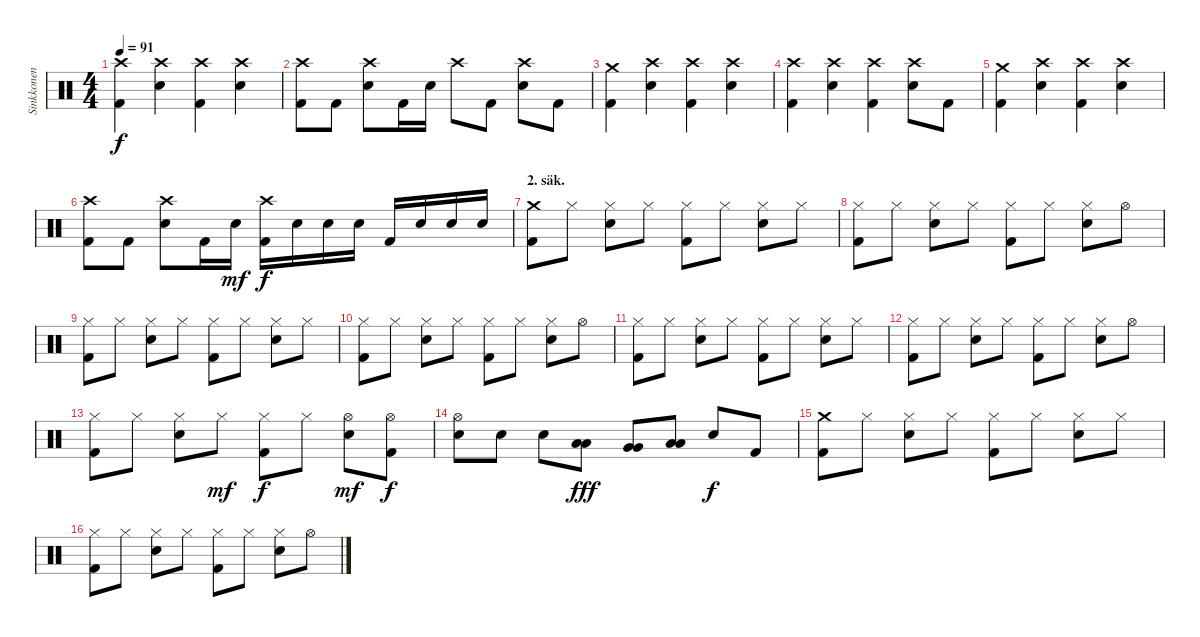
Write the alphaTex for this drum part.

\track ("Sinkkonen" "Sinkkonen") {instrument percussion}
\staff {score}
\articulation defaults
\ts (4 4)
\tempo 91
\clef neutral
\ks c
("Kick (hit) 2" "Crash high (hit)").4{dy f} ("Crash high (hit)" "Snare (hit) 2").4 ("Kick (hit) 2" "Crash high (hit)").4 ("Crash high (hit)" "Snare (hit) 2").4 |
("Kick (hit) 2" "Crash high (hit)").8 "Kick (hit) 2".8 ("Crash high (hit)" "Snare (hit) 2").8 "Kick (hit) 2".16 "Snare (hit) 2".16 "Crash high (hit)".8 "Kick (hit) 2".8 ("Crash high (hit)" "Snare (hit) 2").8 "Kick (hit) 2".8 |
("Kick (hit) 2" "Crash medium (hit)").4 ("Crash high (hit)" "Snare (hit) 2").4 ("Kick (hit) 2" "Crash high (hit)").4 ("Crash high (hit)" "Snare (hit) 2").4 |
("Kick (hit) 2" "Crash high (hit)").4 ("Crash high (hit)" "Snare (hit) 2").4 ("Kick (hit) 2" "Crash high (hit)").4 ("Crash high (hit)" "Snare (hit) 2").8 "Kick (hit) 2".8 |
("Kick (hit) 2" "Crash medium (hit)").4 ("Crash high (hit)" "Snare (hit) 2").4 ("Kick (hit) 2" "Crash high (hit)").4 ("Crash high (hit)" "Snare (hit) 2").4 |
("Kick (hit) 2" "Crash high (hit)").8 "Kick (hit) 2".8 ("Crash high (hit)" "Snare (hit) 2").8 "Kick (hit) 2".16 "Snare (hit) 2".16{dy mf} ("Kick (hit) 2" "Crash high (hit)").16{dy f} "Snare (hit) 2".16 "Snare (hit) 2".16 "Snare (hit) 2".16 "Kick (hit) 2".16 "Snare (hit) 2".16 "Snare (hit) 2".16 "Snare (hit) 2".16 |
\section ("" "2. säk.")
("Kick (hit) 2" "Crash medium (hit)").8 "Hi-Hat (closed)".8 ("Hi-Hat (closed)" "Snare (hit) 2").8 "Hi-Hat (closed)".8 ("Kick (hit) 2" "Hi-Hat (closed)").8 "Hi-Hat (closed)".8 ("Hi-Hat (closed)" "Snare (hit) 2").8 "Hi-Hat (closed)".8 |
("Kick (hit) 2" "Hi-Hat (closed)").8 "Hi-Hat (closed)".8 ("Hi-Hat (closed)" "Snare (hit) 2").8 "Hi-Hat (closed)".8 ("Kick (hit) 2" "Hi-Hat (closed)").8 "Hi-Hat (closed)".8 ("Hi-Hat (closed)" "Snare (hit) 2").8 "Hi-Hat (open)".8 |
("Kick (hit) 2" "Hi-Hat (closed)").8 "Hi-Hat (closed)".8 ("Hi-Hat (closed)" "Snare (hit) 2").8 "Hi-Hat (closed)".8 ("Kick (hit) 2" "Hi-Hat (closed)").8 "Hi-Hat (closed)".8 ("Hi-Hat (closed)" "Snare (hit) 2").8 "Hi-Hat (closed)".8 |
("Kick (hit) 2" "Hi-Hat (closed)").8 "Hi-Hat (closed)".8 ("Hi-Hat (closed)" "Snare (hit) 2").8 "Hi-Hat (closed)".8 ("Kick (hit) 2" "Hi-Hat (closed)").8 "Hi-Hat (closed)".8 ("Hi-Hat (closed)" "Snare (hit) 2").8 "Hi-Hat (open)".8 |
("Kick (hit) 2" "Hi-Hat (closed)").8 "Hi-Hat (closed)".8 ("Hi-Hat (closed)" "Snare (hit) 2").8 "Hi-Hat (closed)".8 ("Kick (hit) 2" "Hi-Hat (closed)").8 "Hi-Hat (closed)".8 ("Hi-Hat (closed)" "Snare (hit) 2").8 "Hi-Hat (closed)".8 |
("Kick (hit) 2" "Hi-Hat (closed)").8 "Hi-Hat (closed)".8 ("Hi-Hat (closed)" "Snare (hit) 2").8 "Hi-Hat (closed)".8 ("Kick (hit) 2" "Hi-Hat (closed)").8 "Hi-Hat (closed)".8 ("Hi-Hat (closed)" "Snare (hit) 2").8 "Hi-Hat (open)".8 |
("Kick (hit) 2" "Hi-Hat (closed)").8 "Hi-Hat (closed)".8 ("Hi-Hat (closed)" "Snare (hit) 2").8 "Hi-Hat (closed)".8{dy mf} ("Kick (hit) 2" "Hi-Hat (closed)").8{dy f} "Hi-Hat (closed)".8 ("Hi-Hat (open)" "Snare (hit) 2").8{dy mf} ("Kick (hit) 2" "Hi-Hat (open)").8{dy f} |
("Hi-Hat (open)" "Snare (hit) 2").8 "Snare (hit) 2".8 "Snare (hit) 2".8 ("Low Tom (hit)" "Low Tom (hit)").8{dy fff} ("Very Low Tom (hit)" "Very Low Tom (hit)").8 ("Low Floor Tom (hit)" "Low Floor Tom (hit)").8 "Snare (hit) 2".8{dy f} "Kick (hit) 2".8 |
("Kick (hit) 2" "Crash medium (hit)").8 "Hi-Hat (closed)".8 ("Hi-Hat (closed)" "Snare (hit) 2").8 "Hi-Hat (closed)".8 ("Kick (hit) 2" "Hi-Hat (closed)").8 "Hi-Hat (closed)".8 ("Hi-Hat (closed)" "Snare (hit) 2").8 "Hi-Hat (closed)".8 |
("Kick (hit) 2" "Hi-Hat (closed)").8 "Hi-Hat (closed)".8 ("Hi-Hat (closed)" "Snare (hit) 2").8 "Hi-Hat (closed)".8 ("Kick (hit) 2" "Hi-Hat (closed)").8 "Hi-Hat (closed)".8 ("Hi-Hat (closed)" "Snare (hit) 2").8 "Hi-Hat (open)".8
